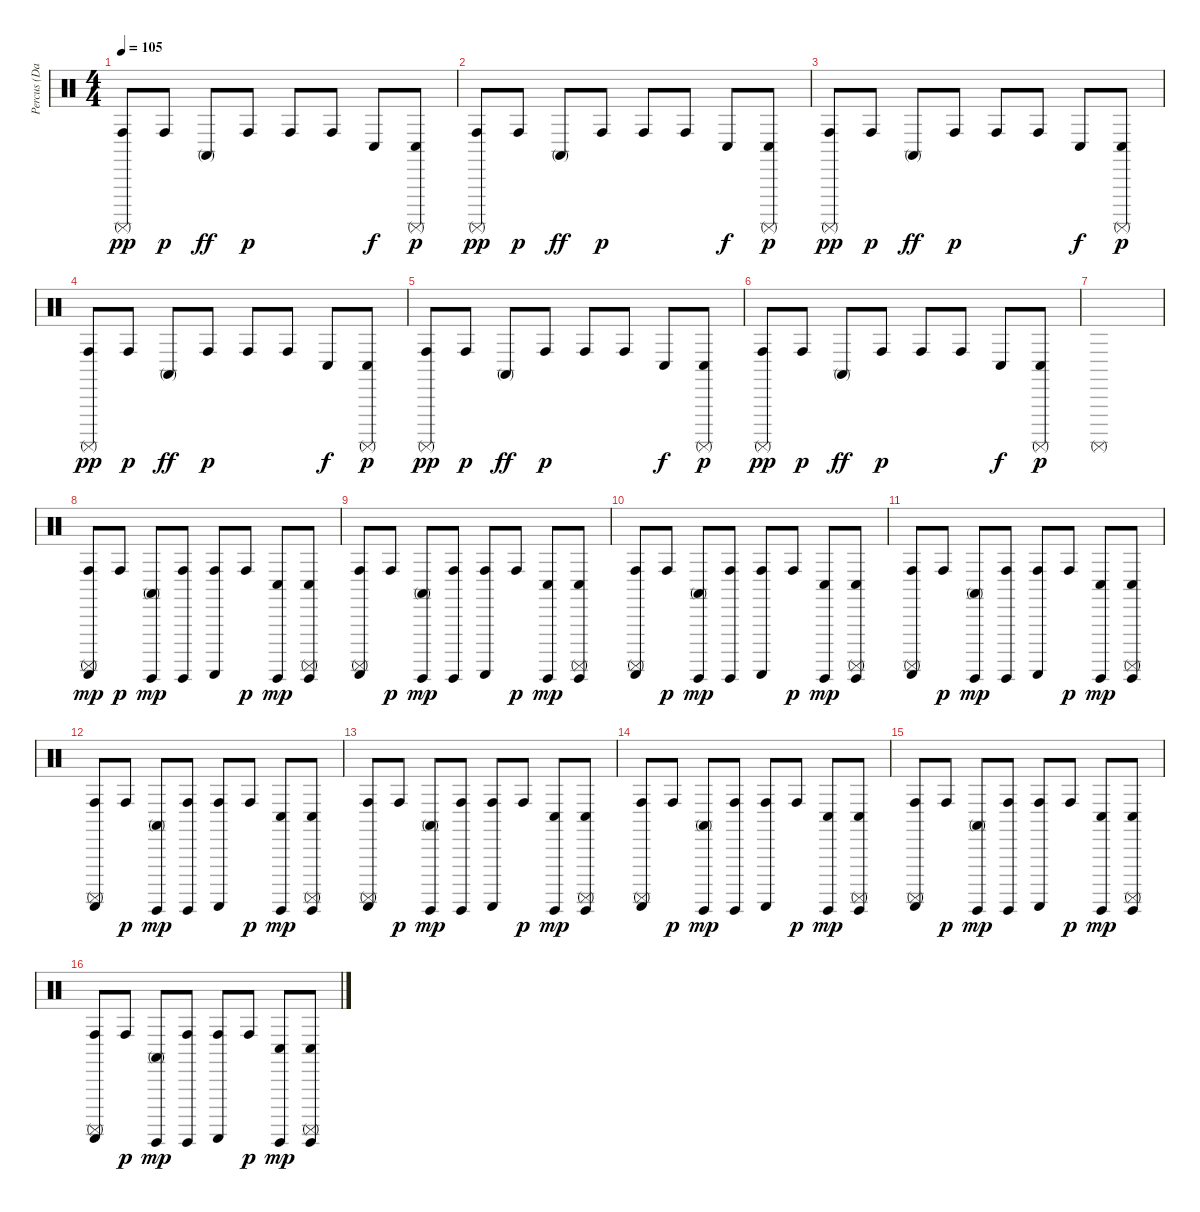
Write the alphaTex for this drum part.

\track ("Percus (Daniel+Mali)" "Percus (Da") {instrument percussion}
\staff {score}
\articulation defaults
\ts (4 4)
\tempo 105
\clef neutral
\ks c
("Surdo (mute)" "Conga high (hit)").8{dy pp} "Conga high (hit)".8{dy p} "Conga high (mute)".8{dy ff} "Conga high (hit)".8{dy p} "Conga high (hit)".8 "Conga high (hit)".8 "Conga low (hit)".8{dy f} ("Conga low (hit)" "Surdo (mute)").8{dy p} |
("Surdo (mute)" "Conga high (hit)").8{dy pp} "Conga high (hit)".8{dy p} "Conga high (mute)".8{dy ff} "Conga high (hit)".8{dy p} "Conga high (hit)".8 "Conga high (hit)".8 "Conga low (hit)".8{dy f} ("Conga low (hit)" "Surdo (mute)").8{dy p} |
("Surdo (mute)" "Conga high (hit)").8{dy pp} "Conga high (hit)".8{dy p} "Conga high (mute)".8{dy ff} "Conga high (hit)".8{dy p} "Conga high (hit)".8 "Conga high (hit)".8 "Conga low (hit)".8{dy f} ("Conga low (hit)" "Surdo (mute)").8{dy p} |
("Surdo (mute)" "Conga high (hit)").8{dy pp} "Conga high (hit)".8{dy p} "Conga high (mute)".8{dy ff} "Conga high (hit)".8{dy p} "Conga high (hit)".8 "Conga high (hit)".8 "Conga low (hit)".8{dy f} ("Conga low (hit)" "Surdo (mute)").8{dy p} |
("Surdo (mute)" "Conga high (hit)").8{dy pp} "Conga high (hit)".8{dy p} "Conga high (mute)".8{dy ff} "Conga high (hit)".8{dy p} "Conga high (hit)".8 "Conga high (hit)".8 "Conga low (hit)".8{dy f} ("Conga low (hit)" "Surdo (mute)").8{dy p} |
("Surdo (mute)" "Conga high (hit)").8{dy pp} "Conga high (hit)".8{dy p} "Conga high (mute)".8{dy ff} "Conga high (hit)".8{dy p} "Conga high (hit)".8 "Conga high (hit)".8 "Conga low (hit)".8{dy f} ("Conga low (hit)" "Surdo (mute)").8{dy p} |
"Surdo (mute)".1 |
("Conga high (hit)" "Guiro (scrap-return)" "Surdo (mute)").8{dy mp} "Conga high (hit)".8{dy p} ("Conga high (mute)" "Guiro (hit)").8{dy mp} ("Conga high (hit)" "Guiro (hit)").8 ("Conga high (hit)" "Guiro (scrap-return)").8 "Conga high (hit)".8{dy p} ("Conga low (hit)" "Guiro (hit)").8{dy mp} ("Conga low (hit)" "Guiro (hit)" "Surdo (mute)").8 |
("Conga high (hit)" "Guiro (scrap-return)" "Surdo (mute)").8 "Conga high (hit)".8{dy p} ("Conga high (mute)" "Guiro (hit)").8{dy mp} ("Conga high (hit)" "Guiro (hit)").8 ("Conga high (hit)" "Guiro (scrap-return)").8 "Conga high (hit)".8{dy p} ("Conga low (hit)" "Guiro (hit)").8{dy mp} ("Conga low (hit)" "Guiro (hit)" "Surdo (mute)").8 |
("Conga high (hit)" "Guiro (scrap-return)" "Surdo (mute)").8 "Conga high (hit)".8{dy p} ("Conga high (mute)" "Guiro (hit)").8{dy mp} ("Conga high (hit)" "Guiro (hit)").8 ("Conga high (hit)" "Guiro (scrap-return)").8 "Conga high (hit)".8{dy p} ("Conga low (hit)" "Guiro (hit)").8{dy mp} ("Conga low (hit)" "Guiro (hit)" "Surdo (mute)").8 |
("Conga high (hit)" "Guiro (scrap-return)" "Surdo (mute)").8 "Conga high (hit)".8{dy p} ("Conga high (mute)" "Guiro (hit)").8{dy mp} ("Conga high (hit)" "Guiro (hit)").8 ("Conga high (hit)" "Guiro (scrap-return)").8 "Conga high (hit)".8{dy p} ("Conga low (hit)" "Guiro (hit)").8{dy mp} ("Conga low (hit)" "Guiro (hit)" "Surdo (mute)").8 |
("Conga high (hit)" "Guiro (scrap-return)" "Surdo (mute)").8 "Conga high (hit)".8{dy p} ("Conga high (mute)" "Guiro (hit)").8{dy mp} ("Conga high (hit)" "Guiro (hit)").8 ("Conga high (hit)" "Guiro (scrap-return)").8 "Conga high (hit)".8{dy p} ("Conga low (hit)" "Guiro (hit)").8{dy mp} ("Conga low (hit)" "Guiro (hit)" "Surdo (mute)").8 |
("Conga high (hit)" "Guiro (scrap-return)" "Surdo (mute)").8 "Conga high (hit)".8{dy p} ("Conga high (mute)" "Guiro (hit)").8{dy mp} ("Conga high (hit)" "Guiro (hit)").8 ("Conga high (hit)" "Guiro (scrap-return)").8 "Conga high (hit)".8{dy p} ("Conga low (hit)" "Guiro (hit)").8{dy mp} ("Conga low (hit)" "Guiro (hit)" "Surdo (mute)").8 |
("Conga high (hit)" "Guiro (scrap-return)" "Surdo (mute)").8 "Conga high (hit)".8{dy p} ("Conga high (mute)" "Guiro (hit)").8{dy mp} ("Conga high (hit)" "Guiro (hit)").8 ("Conga high (hit)" "Guiro (scrap-return)").8 "Conga high (hit)".8{dy p} ("Conga low (hit)" "Guiro (hit)").8{dy mp} ("Conga low (hit)" "Guiro (hit)" "Surdo (mute)").8 |
("Conga high (hit)" "Guiro (scrap-return)" "Surdo (mute)").8 "Conga high (hit)".8{dy p} ("Conga high (mute)" "Guiro (hit)").8{dy mp} ("Conga high (hit)" "Guiro (hit)").8 ("Conga high (hit)" "Guiro (scrap-return)").8 "Conga high (hit)".8{dy p} ("Conga low (hit)" "Guiro (hit)").8{dy mp} ("Conga low (hit)" "Guiro (hit)" "Surdo (mute)").8 |
("Conga high (hit)" "Guiro (scrap-return)" "Surdo (mute)").8 "Conga high (hit)".8{dy p} ("Conga high (mute)" "Guiro (hit)").8{dy mp} ("Conga high (hit)" "Guiro (hit)").8 ("Conga high (hit)" "Guiro (scrap-return)").8 "Conga high (hit)".8{dy p} ("Conga low (hit)" "Guiro (hit)").8{dy mp} ("Conga low (hit)" "Guiro (hit)" "Surdo (mute)").8
